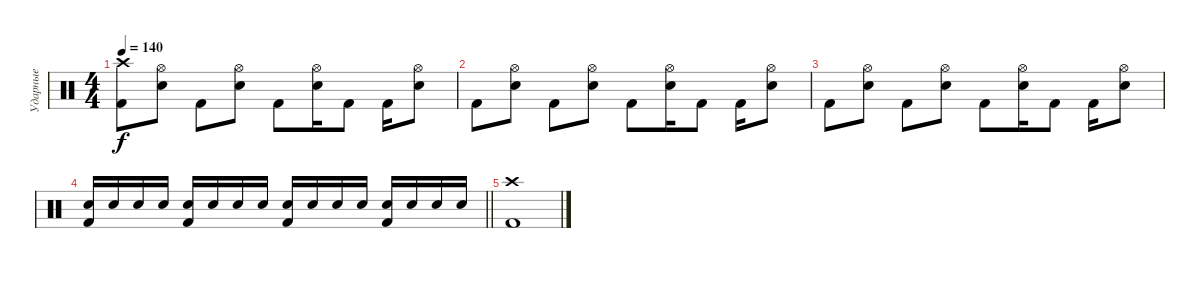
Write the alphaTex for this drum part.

\track ("Ударные" "Ударные") {instrument percussion}
\staff {score}
\articulation defaults
\ts (4 4)
\tempo 140
\clef neutral
\ks c
("Crash high (hit)" "Kick (hit) 2").8{dy f} ("Hi-Hat (open)" "Electric Snare (hit)").8 "Kick (hit) 2".8 ("Hi-Hat (open)" "Electric Snare (hit)").8 "Kick (hit) 2".8 ("Hi-Hat (open)" "Electric Snare (hit)").16 "Kick (hit) 2".8 "Kick (hit) 2".16 ("Hi-Hat (open)" "Electric Snare (hit)").8 |
"Kick (hit) 2".8 ("Hi-Hat (open)" "Electric Snare (hit)").8 "Kick (hit) 2".8 ("Hi-Hat (open)" "Electric Snare (hit)").8 "Kick (hit) 2".8 ("Hi-Hat (open)" "Electric Snare (hit)").16 "Kick (hit) 2".8 "Kick (hit) 2".16 ("Hi-Hat (open)" "Electric Snare (hit)").8 |
"Kick (hit) 2".8 ("Hi-Hat (open)" "Electric Snare (hit)").8 "Kick (hit) 2".8 ("Hi-Hat (open)" "Electric Snare (hit)").8 "Kick (hit) 2".8 ("Hi-Hat (open)" "Electric Snare (hit)").16 "Kick (hit) 2".8 "Kick (hit) 2".16 ("Hi-Hat (open)" "Electric Snare (hit)").8 |
\barLineRight lightlight
("Electric Snare (hit)" "Kick (hit) 2").16 "Electric Snare (hit)".16 "Electric Snare (hit)".16 "Electric Snare (hit)".16 ("Electric Snare (hit)" "Kick (hit) 2").16 "Electric Snare (hit)".16 "Electric Snare (hit)".16 "Electric Snare (hit)".16 ("Electric Snare (hit)" "Kick (hit) 2").16 "Electric Snare (hit)".16 "Electric Snare (hit)".16 "Electric Snare (hit)".16 ("Electric Snare (hit)" "Kick (hit) 2").16 "Electric Snare (hit)".16 "Electric Snare (hit)".16 "Electric Snare (hit)".16 |
("Crash high (hit)" "Kick (hit) 2").1
